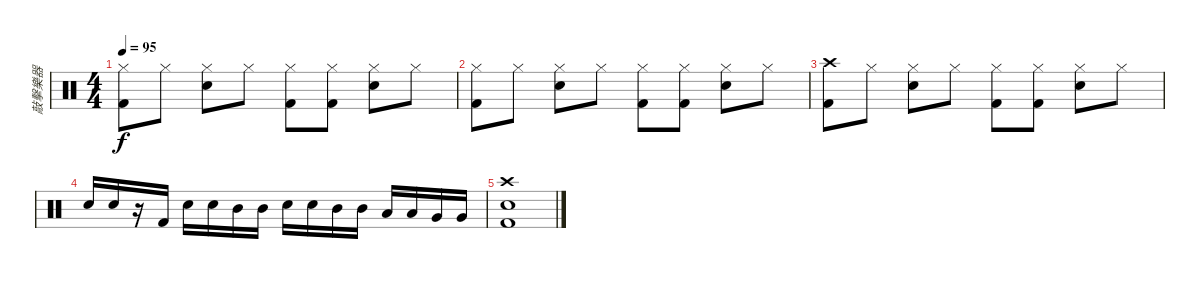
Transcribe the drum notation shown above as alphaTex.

\track ("敲擊樂器" "敲擊樂器") {instrument percussion}
\staff {score}
\articulation defaults
\ts (4 4)
\tempo 95
\clef neutral
\ks c
("Hi-Hat (closed)" "Kick (hit) 2").8{dy f} "Hi-Hat (closed)".8 ("Hi-Hat (closed)" "Snare (hit) 2").8 "Hi-Hat (closed)".8 ("Hi-Hat (closed)" "Kick (hit) 2").8 ("Hi-Hat (closed)" "Kick (hit) 2").8 ("Hi-Hat (closed)" "Snare (hit) 2").8 "Hi-Hat (closed)".8 |
("Hi-Hat (closed)" "Kick (hit) 2").8 "Hi-Hat (closed)".8 ("Hi-Hat (closed)" "Snare (hit) 2").8 "Hi-Hat (closed)".8 ("Hi-Hat (closed)" "Kick (hit) 2").8 ("Hi-Hat (closed)" "Kick (hit) 2").8 ("Hi-Hat (closed)" "Snare (hit) 2").8 "Hi-Hat (closed)".8 |
("Crash high (hit)" "Kick (hit) 2").8 "Hi-Hat (closed)".8 ("Hi-Hat (closed)" "Snare (hit) 2").8 "Hi-Hat (closed)".8 ("Hi-Hat (closed)" "Kick (hit) 2").8 ("Hi-Hat (closed)" "Kick (hit) 2").8 ("Hi-Hat (closed)" "Snare (hit) 2").8 "Hi-Hat (closed)".8 |
"Snare (hit) 2".16 "Snare (hit) 2".16 r.16 "Kick (hit) 2".16 "Snare (hit) 2".16 "Snare (hit) 2".16 "Mid Tom (hit)".16 "Mid Tom (hit)".16 "Snare (hit) 2".16 "Snare (hit) 2".16 "Mid Tom (hit)".16 "Mid Tom (hit)".16 "Low Tom (hit)".16 "Low Tom (hit)".16 "Very Low Tom (hit)".16 "Very Low Tom (hit)".16 |
("Crash high (hit)" "Kick (hit) 2" "Snare (hit) 2").1
